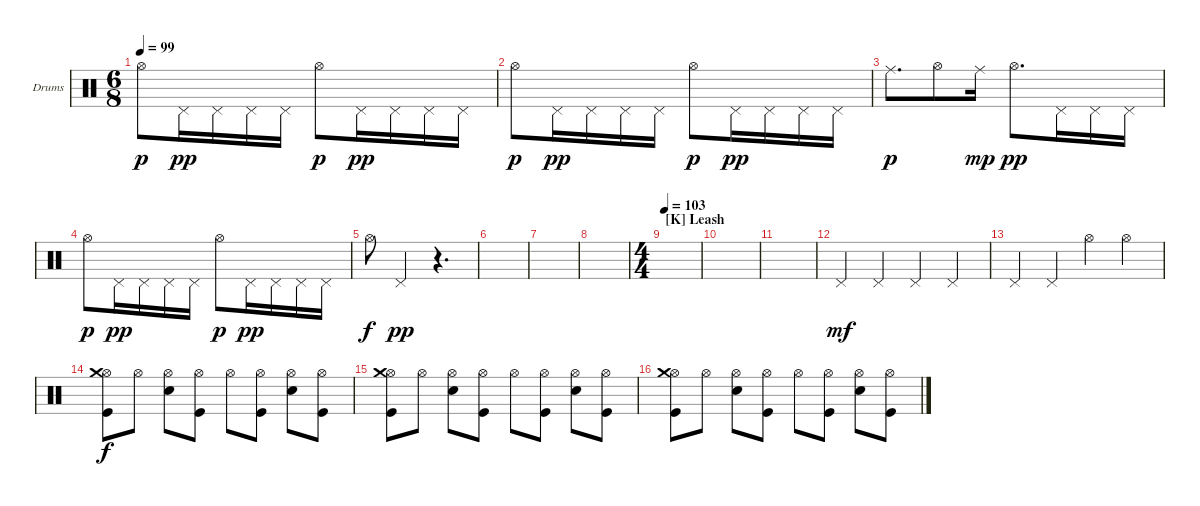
\defaultSystemsLayout 4
\bracketExtendMode nobrackets
\firstSystemTrackNameOrientation horizontal
\otherSystemsTrackNameOrientation horizontal
\track ("Dave Abbruzzese" "Drums") {solo instrument percussion}
\staff {score}
\articulation defaults
\ts (6 8)
\tempo 99
\clef neutral
\ks c "Hi-Hat (open)".8{dy p} "Pedal Hi-Hat (hit)".16{dy pp} "Pedal Hi-Hat (hit)".16 "Pedal Hi-Hat (hit)".16 "Pedal Hi-Hat (hit)".16 "Hi-Hat (open)".8{dy p} "Pedal Hi-Hat (hit)".16{dy pp} "Pedal Hi-Hat (hit)".16 "Pedal Hi-Hat (hit)".16 "Pedal Hi-Hat (hit)".16
|
"Hi-Hat (open)".8{dy p} "Pedal Hi-Hat (hit)".16{dy pp} "Pedal Hi-Hat (hit)".16 "Pedal Hi-Hat (hit)".16 "Pedal Hi-Hat (hit)".16 "Hi-Hat (open)".8{dy p} "Pedal Hi-Hat (hit)".16{dy pp} "Pedal Hi-Hat (hit)".16 "Pedal Hi-Hat (hit)".16 "Pedal Hi-Hat (hit)".16 |
"Ride (middle)".8{d dy p} "Hi-Hat (open)".8 "Ride (middle)".16{dy mp} "Hi-Hat (open)".8{d dy pp} "Pedal Hi-Hat (hit)".16 "Pedal Hi-Hat (hit)".16 "Pedal Hi-Hat (hit)".16 |
"Hi-Hat (open)".8{dy p} "Pedal Hi-Hat (hit)".16{dy pp} "Pedal Hi-Hat (hit)".16 "Pedal Hi-Hat (hit)".16 "Pedal Hi-Hat (hit)".16 "Hi-Hat (open)".8{dy p} "Pedal Hi-Hat (hit)".16{dy pp} "Pedal Hi-Hat (hit)".16 "Pedal Hi-Hat (hit)".16 "Pedal Hi-Hat (hit)".16 |
"Hi-Hat (open)".8{dy f} "Pedal Hi-Hat (hit)".4{dy pp} r.4{d} |
|
|
|
\ts (4 4)
\section ("K" "Leash")
\tempo 103
|
|
|
"Pedal Hi-Hat (hit)".4{dy mf} "Pedal Hi-Hat (hit)".4 "Pedal Hi-Hat (hit)".4 "Pedal Hi-Hat (hit)".4 |
"Pedal Hi-Hat (hit)".4 "Pedal Hi-Hat (hit)".4 "Hi-Hat (open)".4 "Hi-Hat (open)".4 |
("Kick (hit)" "Hi-Hat (open)" "Crash medium (hit)").8{dy f} "Hi-Hat (open)".8 ("Snare (hit) 2" "Hi-Hat (open)").8 ("Kick (hit)" "Hi-Hat (open)").8 "Hi-Hat (open)".8 ("Kick (hit)" "Hi-Hat (open)").8 ("Snare (hit) 2" "Hi-Hat (open)").8 ("Kick (hit)" "Hi-Hat (open)").8 |
("Kick (hit)" "Hi-Hat (open)" "Crash medium (hit)").8 "Hi-Hat (open)".8 ("Snare (hit) 2" "Hi-Hat (open)").8 ("Kick (hit)" "Hi-Hat (open)").8 "Hi-Hat (open)".8 ("Kick (hit)" "Hi-Hat (open)").8 ("Snare (hit) 2" "Hi-Hat (open)").8 ("Kick (hit)" "Hi-Hat (open)").8 |
("Kick (hit)" "Hi-Hat (open)" "Crash medium (hit)").8 "Hi-Hat (open)".8 ("Snare (hit) 2" "Hi-Hat (open)").8 ("Kick (hit)" "Hi-Hat (open)").8 "Hi-Hat (open)".8 ("Kick (hit)" "Hi-Hat (open)").8 ("Snare (hit) 2" "Hi-Hat (open)").8 ("Kick (hit)" "Hi-Hat (open)").8
